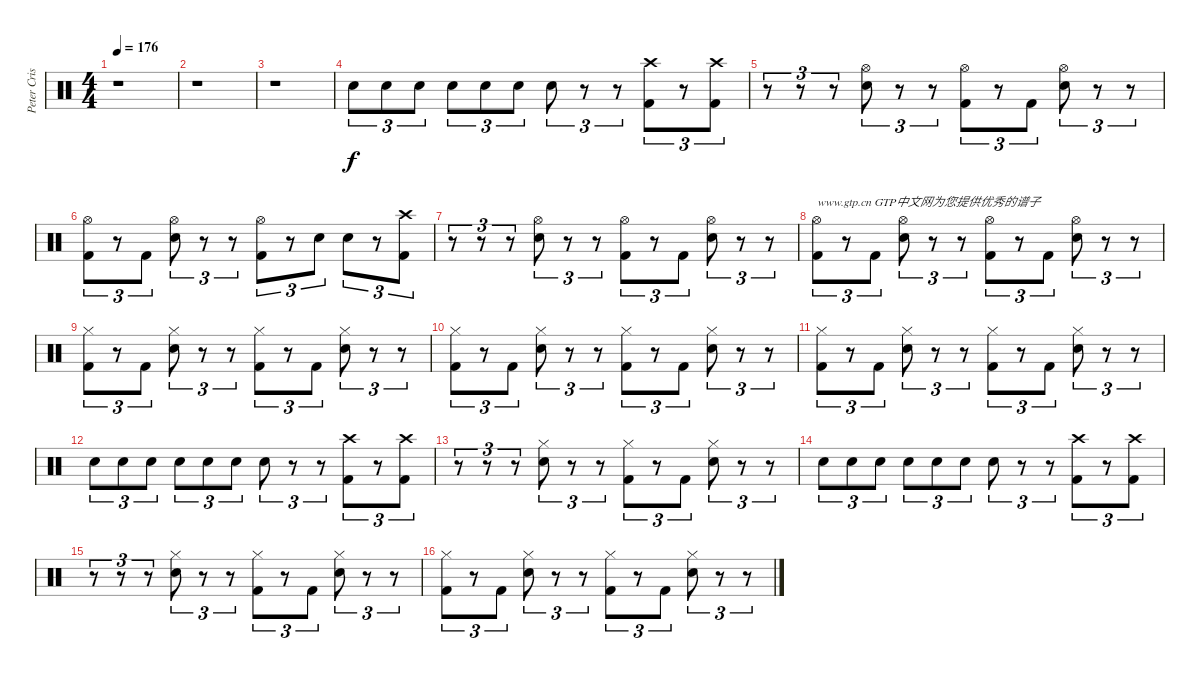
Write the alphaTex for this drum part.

\track ("Peter Criss" "Peter Cris") {instrument percussion}
\staff {score}
\articulation defaults
\ts (4 4)
\tempo 176
\clef neutral
\ks c
r.1{dy f} |
r.1 |
r.1 |
"Electric Snare (hit)".8{tu (3 2)} "Electric Snare (hit)".8{tu (3 2)} "Electric Snare (hit)".8{tu (3 2)} "Electric Snare (hit)".8{tu (3 2)} "Electric Snare (hit)".8{tu (3 2)} "Electric Snare (hit)".8{tu (3 2)} "Electric Snare (hit)".8{tu (3 2)} r.8{tu (3 2)} r.8{tu (3 2)} ("Crash high (hit)" "Kick (hit) 2").8{tu (3 2)} r.8{tu (3 2)} ("Crash high (hit)" "Kick (hit) 2").8{tu (3 2)} |
r.8{tu (3 2)} r.8{tu (3 2)} r.8{tu (3 2)} ("Hi-Hat (open)" "Electric Snare (hit)").8{tu (3 2)} r.8{tu (3 2)} r.8{tu (3 2)} ("Hi-Hat (open)" "Kick (hit) 2").8{tu (3 2)} r.8{tu (3 2)} "Kick (hit) 2".8{tu (3 2)} ("Hi-Hat (open)" "Electric Snare (hit)").8{tu (3 2)} r.8{tu (3 2)} r.8{tu (3 2)} |
("Hi-Hat (open)" "Kick (hit) 2").8{tu (3 2)} r.8{tu (3 2)} "Kick (hit) 2".8{tu (3 2)} ("Hi-Hat (open)" "Electric Snare (hit)").8{tu (3 2)} r.8{tu (3 2)} r.8{tu (3 2)} ("Hi-Hat (open)" "Kick (hit) 2").8{tu (3 2)} r.8{tu (3 2)} "Electric Snare (hit)".8{tu (3 2)} "Electric Snare (hit)".8{tu (3 2)} r.8{tu (3 2)} ("Crash high (hit)" "Kick (hit) 2").8{tu (3 2)} |
r.8{tu (3 2)} r.8{tu (3 2)} r.8{tu (3 2)} ("Hi-Hat (open)" "Electric Snare (hit)").8{tu (3 2)} r.8{tu (3 2)} r.8{tu (3 2)} ("Hi-Hat (open)" "Kick (hit) 2").8{tu (3 2)} r.8{tu (3 2)} "Kick (hit) 2".8{tu (3 2)} ("Hi-Hat (open)" "Electric Snare (hit)").8{tu (3 2)} r.8{tu (3 2)} r.8{tu (3 2)} |
("Hi-Hat (open)" "Kick (hit) 2").8{tu (3 2) txt "www.gtp.cn GTP中文网为您提供优秀的谱子"} r.8{tu (3 2)} "Kick (hit) 2".8{tu (3 2)} ("Hi-Hat (open)" "Electric Snare (hit)").8{tu (3 2)} r.8{tu (3 2)} r.8{tu (3 2)} ("Hi-Hat (open)" "Kick (hit) 2").8{tu (3 2)} r.8{tu (3 2)} "Kick (hit) 2".8{tu (3 2)} ("Hi-Hat (open)" "Electric Snare (hit)").8{tu (3 2)} r.8{tu (3 2)} r.8{tu (3 2)} |
("Hi-Hat (closed)" "Kick (hit) 2").8{tu (3 2)} r.8{tu (3 2)} "Kick (hit) 2".8{tu (3 2)} ("Hi-Hat (closed)" "Electric Snare (hit)").8{tu (3 2)} r.8{tu (3 2)} r.8{tu (3 2)} ("Hi-Hat (closed)" "Kick (hit) 2").8{tu (3 2)} r.8{tu (3 2)} "Kick (hit) 2".8{tu (3 2)} ("Hi-Hat (closed)" "Electric Snare (hit)").8{tu (3 2)} r.8{tu (3 2)} r.8{tu (3 2)} |
("Hi-Hat (closed)" "Kick (hit) 2").8{tu (3 2)} r.8{tu (3 2)} "Kick (hit) 2".8{tu (3 2)} ("Hi-Hat (closed)" "Electric Snare (hit)").8{tu (3 2)} r.8{tu (3 2)} r.8{tu (3 2)} ("Hi-Hat (closed)" "Kick (hit) 2").8{tu (3 2)} r.8{tu (3 2)} "Kick (hit) 2".8{tu (3 2)} ("Hi-Hat (closed)" "Electric Snare (hit)").8{tu (3 2)} r.8{tu (3 2)} r.8{tu (3 2)} |
("Hi-Hat (closed)" "Kick (hit) 2").8{tu (3 2)} r.8{tu (3 2)} "Kick (hit) 2".8{tu (3 2)} ("Hi-Hat (closed)" "Electric Snare (hit)").8{tu (3 2)} r.8{tu (3 2)} r.8{tu (3 2)} ("Hi-Hat (closed)" "Kick (hit) 2").8{tu (3 2)} r.8{tu (3 2)} "Kick (hit) 2".8{tu (3 2)} ("Hi-Hat (closed)" "Electric Snare (hit)").8{tu (3 2)} r.8{tu (3 2)} r.8{tu (3 2)} |
"Electric Snare (hit)".8{tu (3 2)} "Electric Snare (hit)".8{tu (3 2)} "Electric Snare (hit)".8{tu (3 2)} "Electric Snare (hit)".8{tu (3 2)} "Electric Snare (hit)".8{tu (3 2)} "Electric Snare (hit)".8{tu (3 2)} "Electric Snare (hit)".8{tu (3 2)} r.8{tu (3 2)} r.8{tu (3 2)} ("Crash high (hit)" "Kick (hit) 2").8{tu (3 2)} r.8{tu (3 2)} ("Crash high (hit)" "Kick (hit) 2").8{tu (3 2)} |
r.8{tu (3 2)} r.8{tu (3 2)} r.8{tu (3 2)} ("Hi-Hat (closed)" "Electric Snare (hit)").8{tu (3 2)} r.8{tu (3 2)} r.8{tu (3 2)} ("Hi-Hat (closed)" "Kick (hit) 2").8{tu (3 2)} r.8{tu (3 2)} "Kick (hit) 2".8{tu (3 2)} ("Hi-Hat (closed)" "Electric Snare (hit)").8{tu (3 2)} r.8{tu (3 2)} r.8{tu (3 2)} |
"Electric Snare (hit)".8{tu (3 2)} "Electric Snare (hit)".8{tu (3 2)} "Electric Snare (hit)".8{tu (3 2)} "Electric Snare (hit)".8{tu (3 2)} "Electric Snare (hit)".8{tu (3 2)} "Electric Snare (hit)".8{tu (3 2)} "Electric Snare (hit)".8{tu (3 2)} r.8{tu (3 2)} r.8{tu (3 2)} ("Crash high (hit)" "Kick (hit) 2").8{tu (3 2)} r.8{tu (3 2)} ("Crash high (hit)" "Kick (hit) 2").8{tu (3 2)} |
r.8{tu (3 2)} r.8{tu (3 2)} r.8{tu (3 2)} ("Hi-Hat (closed)" "Electric Snare (hit)").8{tu (3 2)} r.8{tu (3 2)} r.8{tu (3 2)} ("Hi-Hat (closed)" "Kick (hit) 2").8{tu (3 2)} r.8{tu (3 2)} "Kick (hit) 2".8{tu (3 2)} ("Hi-Hat (closed)" "Electric Snare (hit)").8{tu (3 2)} r.8{tu (3 2)} r.8{tu (3 2)} |
("Hi-Hat (closed)" "Kick (hit) 2").8{tu (3 2)} r.8{tu (3 2)} "Kick (hit) 2".8{tu (3 2)} ("Hi-Hat (closed)" "Electric Snare (hit)").8{tu (3 2)} r.8{tu (3 2)} r.8{tu (3 2)} ("Hi-Hat (closed)" "Kick (hit) 2").8{tu (3 2)} r.8{tu (3 2)} "Kick (hit) 2".8{tu (3 2)} ("Hi-Hat (closed)" "Electric Snare (hit)").8{tu (3 2)} r.8{tu (3 2)} r.8{tu (3 2)}
